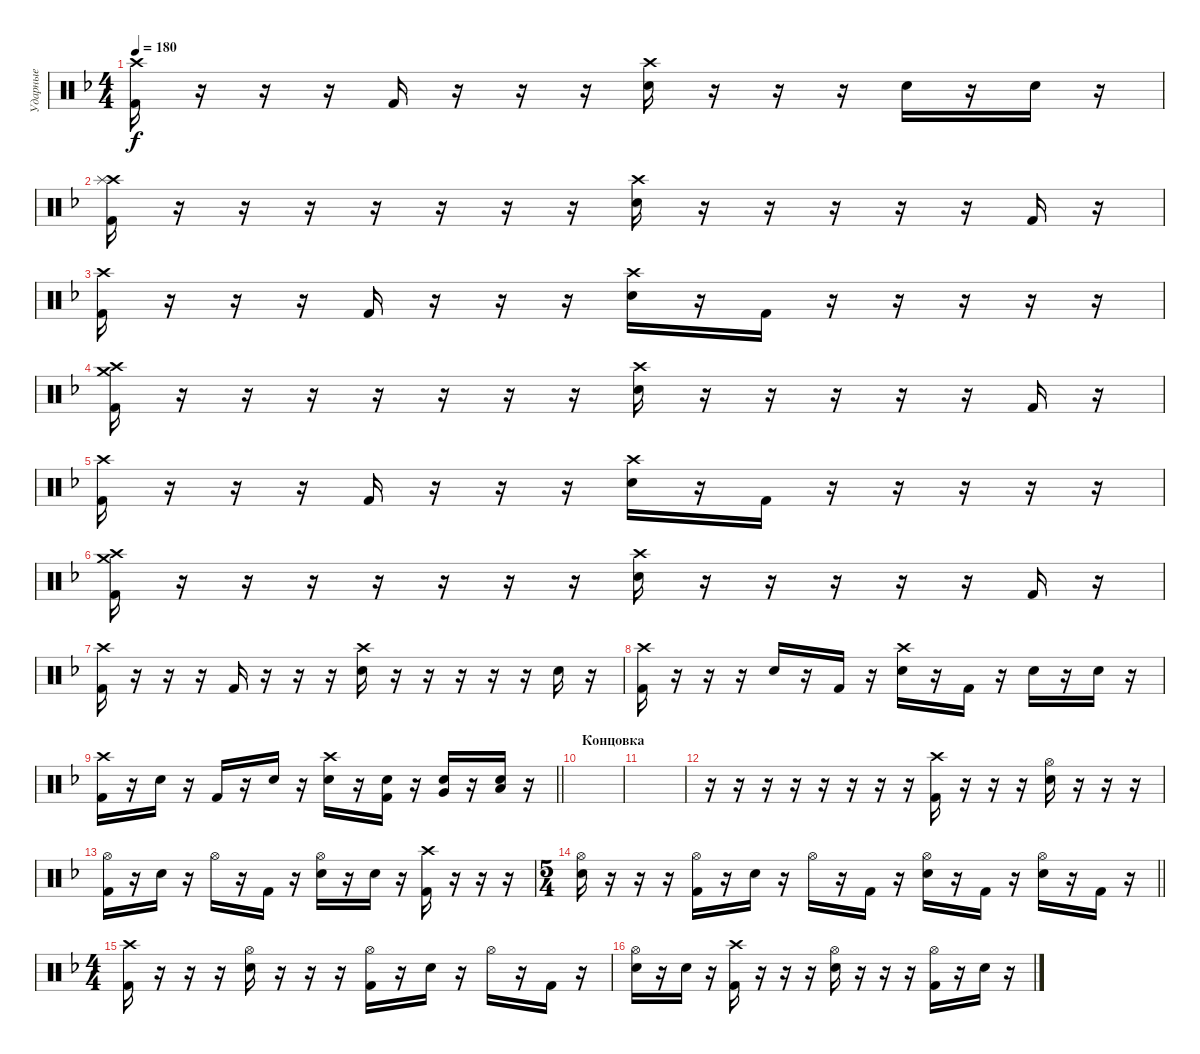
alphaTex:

\track ("Ударные" "Ударные") {instrument percussion}
\staff {score}
\articulation defaults
\ts (4 4)
\tempo 180
\clef neutral
\ks dminor
("Crash high (hit)" "Kick (hit) 2").16{dy f} r.16 r.16 r.16 "Kick (hit) 2".16 r.16 r.16 r.16 ("Crash high (hit)" "Electric Snare (hit)").16 r.16 r.16 r.16 "Electric Snare (hit)".16 r.16 "Electric Snare (hit)".16 r.16 |
("Crash high (hit)" "Splash (hit)" "Kick (hit) 2").16 r.16 r.16 r.16 r.16 r.16 r.16 r.16 ("Crash high (hit)" "Electric Snare (hit)").16 r.16 r.16 r.16 r.16 r.16 "Kick (hit) 2".16 r.16 |
("Crash high (hit)" "Kick (hit) 2").16 r.16 r.16 r.16 "Kick (hit) 2".16 r.16 r.16 r.16 ("Crash high (hit)" "Electric Snare (hit)").16 r.16 "Kick (hit) 2".16 r.16 r.16 r.16 r.16 r.16 |
("Crash high (hit)" "Crash medium (hit)" "Kick (hit) 2").16 r.16 r.16 r.16 r.16 r.16 r.16 r.16 ("Crash high (hit)" "Electric Snare (hit)").16 r.16 r.16 r.16 r.16 r.16 "Kick (hit) 2".16 r.16 |
("Crash high (hit)" "Kick (hit) 2").16 r.16 r.16 r.16 "Kick (hit) 2".16 r.16 r.16 r.16 ("Crash high (hit)" "Electric Snare (hit)").16 r.16 "Kick (hit) 2".16 r.16 r.16 r.16 r.16 r.16 |
("Crash high (hit)" "Crash medium (hit)" "Kick (hit) 2").16 r.16 r.16 r.16 r.16 r.16 r.16 r.16 ("Crash high (hit)" "Electric Snare (hit)").16 r.16 r.16 r.16 r.16 r.16 "Kick (hit) 2".16 r.16 |
("Crash high (hit)" "Kick (hit) 2").16 r.16 r.16 r.16 "Kick (hit) 2".16 r.16 r.16 r.16 ("Crash high (hit)" "Electric Snare (hit)").16 r.16 r.16 r.16 r.16 r.16 "Electric Snare (hit)".16 r.16 |
("Crash high (hit)" "Kick (hit) 2").16 r.16 r.16 r.16 "Electric Snare (hit)".16 r.16 "Kick (hit) 2".16 r.16 ("Crash high (hit)" "Electric Snare (hit)").16 r.16 "Kick (hit) 2".16 r.16 "Electric Snare (hit)".16 r.16 "Electric Snare (hit)".16 r.16 |
\barLineRight lightlight
("Crash high (hit)" "Kick (hit) 2").16 r.16 "Electric Snare (hit)".16 r.16 "Kick (hit) 2".16 r.16 "Electric Snare (hit)".16 r.16 ("Crash high (hit)" "Electric Snare (hit)").16 r.16 ("Electric Snare (hit)" "Kick (hit) 2").16 r.16 ("Electric Snare (hit)" "Very Low Tom (hit)").16 r.16 ("Electric Snare (hit)" "Low Floor Tom (hit)").16 r.16 |
\section ("" "Концовка")
|
|
r.16 r.16 r.16 r.16 r.16 r.16 r.16 r.16 ("Crash high (hit)" "Kick (hit) 2").16 r.16 r.16 r.16 ("Hi-Hat (open)" "Electric Snare (hit)").16 r.16 r.16 r.16 |
("Hi-Hat (open)" "Kick (hit) 2").16 r.16 "Electric Snare (hit)".16 r.16 "Hi-Hat (open)".16 r.16 "Kick (hit) 2".16 r.16 ("Hi-Hat (open)" "Electric Snare (hit)").16 r.16 "Electric Snare (hit)".16 r.16 ("Crash high (hit)" "Kick (hit) 2").16 r.16 r.16 r.16 |
\ts (5 4)
\barLineRight lightlight
("Hi-Hat (open)" "Electric Snare (hit)").16 r.16 r.16 r.16 ("Hi-Hat (open)" "Kick (hit) 2").16 r.16 "Electric Snare (hit)".16 r.16 "Hi-Hat (open)".16 r.16 "Kick (hit) 2".16 r.16 ("Hi-Hat (open)" "Electric Snare (hit)").16 r.16 "Kick (hit) 2".16 r.16 ("Hi-Hat (open)" "Electric Snare (hit)").16 r.16 "Kick (hit) 2".16 r.16 |
\ts (4 4)
("Crash high (hit)" "Kick (hit) 2").16 r.16 r.16 r.16 ("Hi-Hat (open)" "Electric Snare (hit)").16 r.16 r.16 r.16 ("Hi-Hat (open)" "Kick (hit) 2").16 r.16 "Electric Snare (hit)".16 r.16 "Hi-Hat (open)".16 r.16 "Kick (hit) 2".16 r.16 |
("Hi-Hat (open)" "Electric Snare (hit)").16 r.16 "Electric Snare (hit)".16 r.16 ("Crash high (hit)" "Kick (hit) 2").16 r.16 r.16 r.16 ("Hi-Hat (open)" "Electric Snare (hit)").16 r.16 r.16 r.16 ("Hi-Hat (open)" "Kick (hit) 2").16 r.16 "Electric Snare (hit)".16 r.16
